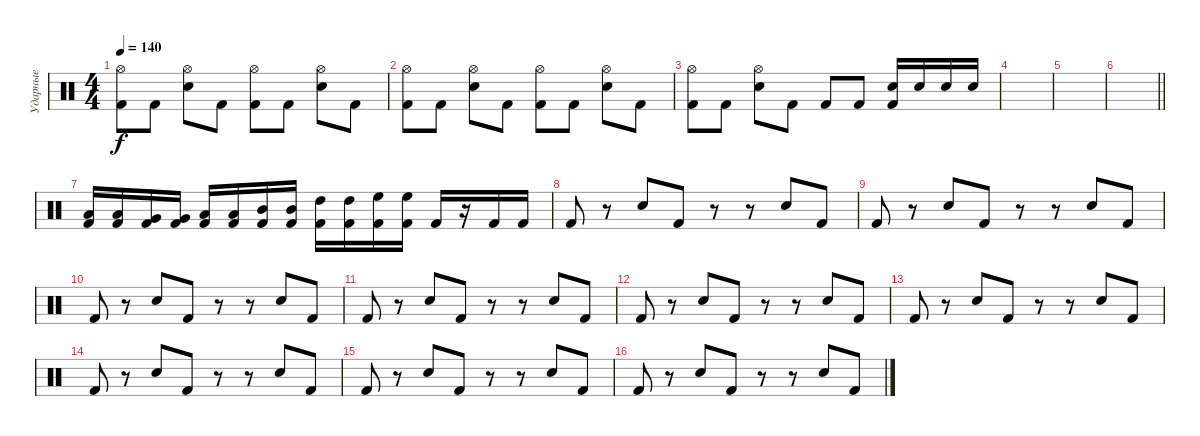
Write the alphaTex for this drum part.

\track ("Ударные" "Ударные") {instrument percussion}
\staff {score}
\articulation defaults
\ts (4 4)
\tempo 140
\clef neutral
\ks c
("Kick (hit) 2" "Hi-Hat (open)").8{dy f} "Kick (hit) 2".8 ("Electric Snare (hit)" "Hi-Hat (open)").8 "Kick (hit) 2".8 ("Kick (hit) 2" "Hi-Hat (open)").8 "Kick (hit) 2".8 ("Electric Snare (hit)" "Hi-Hat (open)").8 "Kick (hit) 2".8 |
("Kick (hit) 2" "Hi-Hat (open)").8 "Kick (hit) 2".8 ("Electric Snare (hit)" "Hi-Hat (open)").8 "Kick (hit) 2".8 ("Kick (hit) 2" "Hi-Hat (open)").8 "Kick (hit) 2".8 ("Electric Snare (hit)" "Hi-Hat (open)").8 "Kick (hit) 2".8 |
("Kick (hit) 2" "Hi-Hat (open)").8 "Kick (hit) 2".8 ("Electric Snare (hit)" "Hi-Hat (open)").8 "Kick (hit) 2".8 "Kick (hit) 2".8 "Kick (hit) 2".8 ("Electric Snare (hit)" "Kick (hit) 2").16 "Electric Snare (hit)".16 "Electric Snare (hit)".16 "Electric Snare (hit)".16 |
|
|
\barLineRight lightlight
|
("Low Floor Tom (hit)" "Kick (hit) 2").16 ("Low Floor Tom (hit)" "Kick (hit) 2").16 ("Very Low Tom (hit)" "Kick (hit) 2").16 ("Very Low Tom (hit)" "Kick (hit) 2").16 ("Low Tom (hit)" "Kick (hit) 2").16 ("Low Tom (hit)" "Kick (hit) 2").16 ("Mid Tom (hit)" "Kick (hit) 2").16 ("Mid Tom (hit)" "Kick (hit) 2").16 ("High Tom (hit)" "Kick (hit) 2").16 ("High Tom (hit)" "Kick (hit) 2").16 ("High Floor Tom (hit)" "Kick (hit) 2").16 ("High Floor Tom (hit)" "Kick (hit) 2").16 "Kick (hit) 2".16 r.16 "Kick (hit) 2".16 "Kick (hit) 2".16 |
"Kick (hit) 2".8 r.8 "Electric Snare (hit)".8 "Kick (hit) 2".8 r.8 r.8 "Electric Snare (hit)".8 "Kick (hit) 2".8 |
"Kick (hit) 2".8 r.8 "Electric Snare (hit)".8 "Kick (hit) 2".8 r.8 r.8 "Electric Snare (hit)".8 "Kick (hit) 2".8 |
"Kick (hit) 2".8 r.8 "Electric Snare (hit)".8 "Kick (hit) 2".8 r.8 r.8 "Electric Snare (hit)".8 "Kick (hit) 2".8 |
"Kick (hit) 2".8 r.8 "Electric Snare (hit)".8 "Kick (hit) 2".8 r.8 r.8 "Electric Snare (hit)".8 "Kick (hit) 2".8 |
"Kick (hit) 2".8 r.8 "Electric Snare (hit)".8 "Kick (hit) 2".8 r.8 r.8 "Electric Snare (hit)".8 "Kick (hit) 2".8 |
"Kick (hit) 2".8 r.8 "Electric Snare (hit)".8 "Kick (hit) 2".8 r.8 r.8 "Electric Snare (hit)".8 "Kick (hit) 2".8 |
"Kick (hit) 2".8 r.8 "Electric Snare (hit)".8 "Kick (hit) 2".8 r.8 r.8 "Electric Snare (hit)".8 "Kick (hit) 2".8 |
"Kick (hit) 2".8 r.8 "Electric Snare (hit)".8 "Kick (hit) 2".8 r.8 r.8 "Electric Snare (hit)".8 "Kick (hit) 2".8 |
"Kick (hit) 2".8 r.8 "Electric Snare (hit)".8 "Kick (hit) 2".8 r.8 r.8 "Electric Snare (hit)".8 "Kick (hit) 2".8
